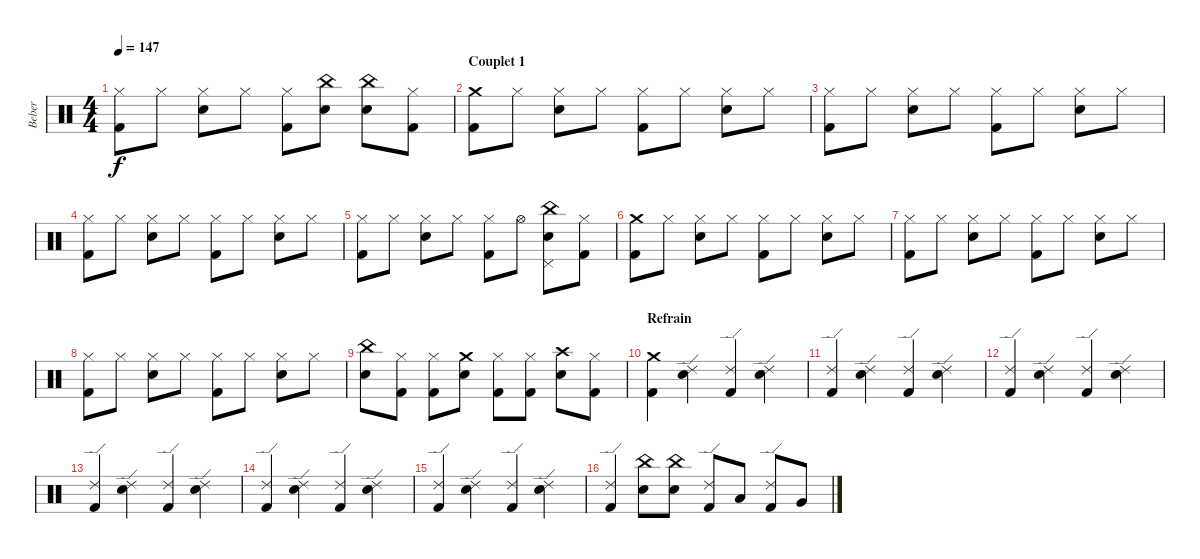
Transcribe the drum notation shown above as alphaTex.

\track ("Beber" "Beber") {instrument percussion}
\staff {score}
\articulation defaults
\ts (4 4)
\tempo 147
\clef neutral
\ks c
("Hi-Hat (closed)" "Kick (hit) 2").8{dy f} "Hi-Hat (closed)".8 ("Hi-Hat (closed)" "Snare (hit) 2").8 "Hi-Hat (closed)".8 ("Hi-Hat (closed)" "Kick (hit) 2").8 ("China (hit)" "Snare (hit) 2").8 ("China (hit)" "Snare (hit) 2").8 ("Hi-Hat (closed)" "Kick (hit) 2").8 |
\section ("" "Couplet 1")
("Crash medium (hit)" "Kick (hit) 2").8 "Hi-Hat (closed)".8 ("Hi-Hat (closed)" "Snare (hit) 2").8 "Hi-Hat (closed)".8 ("Hi-Hat (closed)" "Kick (hit) 2").8 "Hi-Hat (closed)".8 ("Hi-Hat (closed)" "Snare (hit) 2").8 "Hi-Hat (closed)".8 |
("Hi-Hat (closed)" "Kick (hit) 2").8 "Hi-Hat (closed)".8 ("Hi-Hat (closed)" "Snare (hit) 2").8 "Hi-Hat (closed)".8 ("Hi-Hat (closed)" "Kick (hit) 2").8 "Hi-Hat (closed)".8 ("Hi-Hat (closed)" "Snare (hit) 2").8 "Hi-Hat (closed)".8 |
("Hi-Hat (closed)" "Kick (hit) 2").8 "Hi-Hat (closed)".8 ("Hi-Hat (closed)" "Snare (hit) 2").8 "Hi-Hat (closed)".8 ("Hi-Hat (closed)" "Kick (hit) 2").8 "Hi-Hat (closed)".8 ("Hi-Hat (closed)" "Snare (hit) 2").8 "Hi-Hat (closed)".8 |
("Hi-Hat (closed)" "Kick (hit) 2").8 "Hi-Hat (closed)".8 ("Hi-Hat (closed)" "Snare (hit) 2").8 "Hi-Hat (closed)".8 ("Hi-Hat (closed)" "Kick (hit) 2").8 "Hi-Hat (open)".8 ("China (hit)" "Snare (hit) 2" "Pedal Hi-Hat (hit)").8 ("Hi-Hat (closed)" "Kick (hit) 2").8 |
("Crash medium (hit)" "Kick (hit) 2").8 "Hi-Hat (closed)".8 ("Hi-Hat (closed)" "Snare (hit) 2").8 "Hi-Hat (closed)".8 ("Hi-Hat (closed)" "Kick (hit) 2").8 "Hi-Hat (closed)".8 ("Hi-Hat (closed)" "Snare (hit) 2").8 "Hi-Hat (closed)".8 |
("Hi-Hat (closed)" "Kick (hit) 2").8 "Hi-Hat (closed)".8 ("Hi-Hat (closed)" "Snare (hit) 2").8 "Hi-Hat (closed)".8 ("Hi-Hat (closed)" "Kick (hit) 2").8 "Hi-Hat (closed)".8 ("Hi-Hat (closed)" "Snare (hit) 2").8 "Hi-Hat (closed)".8 |
("Hi-Hat (closed)" "Kick (hit) 2").8 "Hi-Hat (closed)".8 ("Hi-Hat (closed)" "Snare (hit) 2").8 "Hi-Hat (closed)".8 ("Hi-Hat (closed)" "Kick (hit) 2").8 "Hi-Hat (closed)".8 ("Hi-Hat (closed)" "Snare (hit) 2").8 "Hi-Hat (closed)".8 |
("China (hit)" "Snare (hit) 2").8 ("Hi-Hat (closed)" "Kick (hit) 2").8 ("Hi-Hat (closed)" "Kick (hit) 2").8 ("Crash medium (hit)" "Snare (hit) 2").8 ("Hi-Hat (closed)" "Kick (hit) 2").8 ("Hi-Hat (closed)" "Kick (hit) 2").8 ("Crash high (hit)" "Snare (hit) 2").8 ("Hi-Hat (closed)" "Kick (hit) 2").8 |
\section ("" "Refrain")
("Crash medium (hit)" "Kick (hit) 2").4 ("Ride (edge) 2" "Snare (hit) 2").4 ("Ride (edge) 2" "Kick (hit) 2").4 ("Ride (edge) 2" "Snare (hit) 2").4 |
("Ride (edge) 2" "Kick (hit) 2").4 ("Ride (edge) 2" "Snare (hit) 2").4 ("Ride (edge) 2" "Kick (hit) 2").4 ("Ride (edge) 2" "Snare (hit) 2").4 |
("Ride (edge) 2" "Kick (hit) 2").4 ("Ride (edge) 2" "Snare (hit) 2").4 ("Ride (edge) 2" "Kick (hit) 2").4 ("Ride (edge) 2" "Snare (hit) 2").4 |
("Ride (edge) 2" "Kick (hit) 2").4 ("Ride (edge) 2" "Snare (hit) 2").4 ("Ride (edge) 2" "Kick (hit) 2").4 ("Ride (edge) 2" "Snare (hit) 2").4 |
("Ride (edge) 2" "Kick (hit) 2").4 ("Ride (edge) 2" "Snare (hit) 2").4 ("Ride (edge) 2" "Kick (hit) 2").4 ("Ride (edge) 2" "Snare (hit) 2").4 |
("Ride (edge) 2" "Kick (hit) 2").4 ("Ride (edge) 2" "Snare (hit) 2").4 ("Ride (edge) 2" "Kick (hit) 2").4 ("Ride (edge) 2" "Snare (hit) 2").4 |
("Ride (edge) 2" "Kick (hit) 2").4 ("China (hit)" "Snare (hit) 2").8 ("China (hit)" "Snare (hit) 2").8 ("Ride (edge) 2" "Kick (hit) 2").8 "Low Tom (hit)".8 ("Ride (edge) 2" "Kick (hit) 2").8 "Very Low Tom (hit)".8
